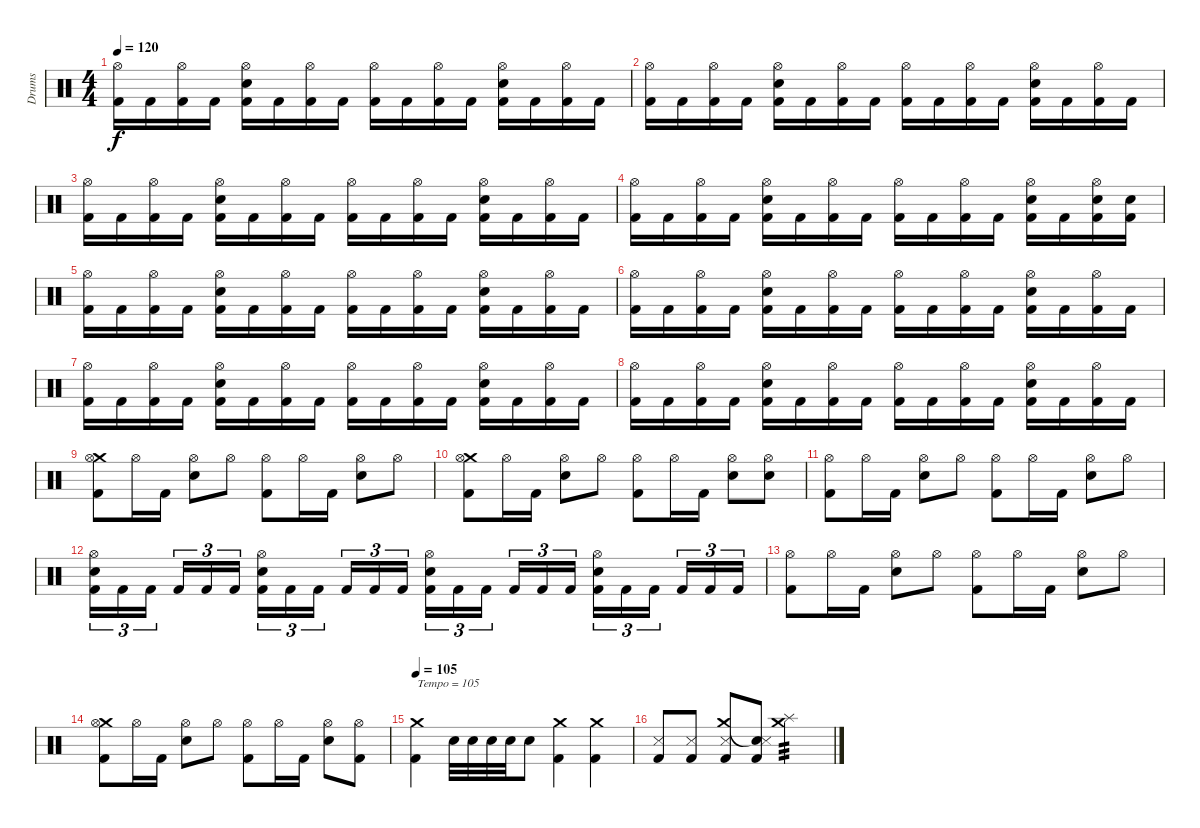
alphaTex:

\track ("Drums" "Drums") {instrument percussion}
\staff {score}
\articulation defaults
\ts (4 4)
\tempo 120
\clef neutral
\ks c
("Hi-Hat (open)" "Kick (hit) 2").16{dy f} "Kick (hit) 2".16 ("Hi-Hat (open)" "Kick (hit) 2").16 "Kick (hit) 2".16 ("Hi-Hat (open)" "Electric Snare (hit)" "Kick (hit) 2").16 "Kick (hit) 2".16 ("Hi-Hat (open)" "Kick (hit) 2").16 "Kick (hit) 2".16 ("Hi-Hat (open)" "Kick (hit) 2").16 "Kick (hit) 2".16 ("Hi-Hat (open)" "Kick (hit) 2").16 "Kick (hit) 2".16 ("Hi-Hat (open)" "Electric Snare (hit)" "Kick (hit) 2").16 "Kick (hit) 2".16 ("Hi-Hat (open)" "Kick (hit) 2").16 "Kick (hit) 2".16 |
("Hi-Hat (open)" "Kick (hit) 2").16 "Kick (hit) 2".16 ("Hi-Hat (open)" "Kick (hit) 2").16 "Kick (hit) 2".16 ("Hi-Hat (open)" "Electric Snare (hit)" "Kick (hit) 2").16 "Kick (hit) 2".16 ("Hi-Hat (open)" "Kick (hit) 2").16 "Kick (hit) 2".16 ("Hi-Hat (open)" "Kick (hit) 2").16 "Kick (hit) 2".16 ("Hi-Hat (open)" "Kick (hit) 2").16 "Kick (hit) 2".16 ("Hi-Hat (open)" "Electric Snare (hit)" "Kick (hit) 2").16 "Kick (hit) 2".16 ("Hi-Hat (open)" "Kick (hit) 2").16 "Kick (hit) 2".16 |
("Hi-Hat (open)" "Kick (hit) 2").16 "Kick (hit) 2".16 ("Hi-Hat (open)" "Kick (hit) 2").16 "Kick (hit) 2".16 ("Hi-Hat (open)" "Electric Snare (hit)" "Kick (hit) 2").16 "Kick (hit) 2".16 ("Hi-Hat (open)" "Kick (hit) 2").16 "Kick (hit) 2".16 ("Hi-Hat (open)" "Kick (hit) 2").16 "Kick (hit) 2".16 ("Hi-Hat (open)" "Kick (hit) 2").16 "Kick (hit) 2".16 ("Hi-Hat (open)" "Electric Snare (hit)" "Kick (hit) 2").16 "Kick (hit) 2".16 ("Hi-Hat (open)" "Kick (hit) 2").16 "Kick (hit) 2".16 |
("Hi-Hat (open)" "Kick (hit) 2").16 "Kick (hit) 2".16 ("Hi-Hat (open)" "Kick (hit) 2").16 "Kick (hit) 2".16 ("Hi-Hat (open)" "Electric Snare (hit)" "Kick (hit) 2").16 "Kick (hit) 2".16 ("Hi-Hat (open)" "Kick (hit) 2").16 "Kick (hit) 2".16 ("Hi-Hat (open)" "Kick (hit) 2").16 "Kick (hit) 2".16 ("Hi-Hat (open)" "Kick (hit) 2").16 "Kick (hit) 2".16 ("Hi-Hat (open)" "Electric Snare (hit)" "Kick (hit) 2").16 "Kick (hit) 2".16 ("Hi-Hat (open)" "Electric Snare (hit)" "Kick (hit) 2").16 ("Electric Snare (hit)" "Kick (hit) 2").16 |
("Hi-Hat (open)" "Kick (hit) 2").16 "Kick (hit) 2".16 ("Hi-Hat (open)" "Kick (hit) 2").16 "Kick (hit) 2".16 ("Hi-Hat (open)" "Electric Snare (hit)" "Kick (hit) 2").16 "Kick (hit) 2".16 ("Hi-Hat (open)" "Kick (hit) 2").16 "Kick (hit) 2".16 ("Hi-Hat (open)" "Kick (hit) 2").16 "Kick (hit) 2".16 ("Hi-Hat (open)" "Kick (hit) 2").16 "Kick (hit) 2".16 ("Hi-Hat (open)" "Electric Snare (hit)" "Kick (hit) 2").16 "Kick (hit) 2".16 ("Hi-Hat (open)" "Kick (hit) 2").16 "Kick (hit) 2".16 |
("Hi-Hat (open)" "Kick (hit) 2").16 "Kick (hit) 2".16 ("Hi-Hat (open)" "Kick (hit) 2").16 "Kick (hit) 2".16 ("Hi-Hat (open)" "Electric Snare (hit)" "Kick (hit) 2").16 "Kick (hit) 2".16 ("Hi-Hat (open)" "Kick (hit) 2").16 "Kick (hit) 2".16 ("Hi-Hat (open)" "Kick (hit) 2").16 "Kick (hit) 2".16 ("Hi-Hat (open)" "Kick (hit) 2").16 "Kick (hit) 2".16 ("Hi-Hat (open)" "Electric Snare (hit)" "Kick (hit) 2").16 "Kick (hit) 2".16 ("Hi-Hat (open)" "Kick (hit) 2").16 "Kick (hit) 2".16 |
("Hi-Hat (open)" "Kick (hit) 2").16 "Kick (hit) 2".16 ("Hi-Hat (open)" "Kick (hit) 2").16 "Kick (hit) 2".16 ("Hi-Hat (open)" "Electric Snare (hit)" "Kick (hit) 2").16 "Kick (hit) 2".16 ("Hi-Hat (open)" "Kick (hit) 2").16 "Kick (hit) 2".16 ("Hi-Hat (open)" "Kick (hit) 2").16 "Kick (hit) 2".16 ("Hi-Hat (open)" "Kick (hit) 2").16 "Kick (hit) 2".16 ("Hi-Hat (open)" "Electric Snare (hit)" "Kick (hit) 2").16 "Kick (hit) 2".16 ("Hi-Hat (open)" "Kick (hit) 2").16 "Kick (hit) 2".16 |
("Hi-Hat (open)" "Kick (hit) 2").16 "Kick (hit) 2".16 ("Hi-Hat (open)" "Kick (hit) 2").16 "Kick (hit) 2".16 ("Hi-Hat (open)" "Electric Snare (hit)" "Kick (hit) 2").16 "Kick (hit) 2".16 ("Hi-Hat (open)" "Kick (hit) 2").16 "Kick (hit) 2".16 ("Hi-Hat (open)" "Kick (hit) 2").16 "Kick (hit) 2".16 ("Hi-Hat (open)" "Kick (hit) 2").16 "Kick (hit) 2".16 ("Hi-Hat (open)" "Electric Snare (hit)" "Kick (hit) 2").16 "Kick (hit) 2".16 ("Hi-Hat (open)" "Kick (hit) 2").16 "Kick (hit) 2".16 |
("Crash medium (hit)" "Hi-Hat (open)" "Kick (hit) 2").8 "Hi-Hat (open)".16 "Kick (hit) 2".16 ("Hi-Hat (open)" "Electric Snare (hit)").8 "Hi-Hat (open)".8 ("Hi-Hat (open)" "Kick (hit) 2").8 "Hi-Hat (open)".16 "Kick (hit) 2".16 ("Hi-Hat (open)" "Electric Snare (hit)").8 "Hi-Hat (open)".8 |
("Crash medium (hit)" "Hi-Hat (open)" "Kick (hit) 2").8 "Hi-Hat (open)".16 "Kick (hit) 2".16 ("Hi-Hat (open)" "Electric Snare (hit)").8 "Hi-Hat (open)".8 ("Hi-Hat (open)" "Kick (hit) 2").8 "Hi-Hat (open)".16 "Kick (hit) 2".16 ("Hi-Hat (open)" "Electric Snare (hit)").8 ("Hi-Hat (open)" "Electric Snare (hit)").8 |
("Hi-Hat (open)" "Kick (hit) 2").8 "Hi-Hat (open)".16 "Kick (hit) 2".16 ("Hi-Hat (open)" "Electric Snare (hit)").8 "Hi-Hat (open)".8 ("Hi-Hat (open)" "Kick (hit) 2").8 "Hi-Hat (open)".16 "Kick (hit) 2".16 ("Hi-Hat (open)" "Electric Snare (hit)").8 "Hi-Hat (open)".8 |
("Hi-Hat (open)" "Electric Snare (hit)" "Kick (hit) 2").16{tu (3 2)} "Kick (hit) 2".16{tu (3 2)} "Kick (hit) 2".16{tu (3 2)} "Kick (hit) 2".16{tu (3 2)} "Kick (hit) 2".16{tu (3 2)} "Kick (hit) 2".16{tu (3 2)} ("Hi-Hat (open)" "Electric Snare (hit)" "Kick (hit) 2").16{tu (3 2)} "Kick (hit) 2".16{tu (3 2)} "Kick (hit) 2".16{tu (3 2)} "Kick (hit) 2".16{tu (3 2)} "Kick (hit) 2".16{tu (3 2)} "Kick (hit) 2".16{tu (3 2)} ("Hi-Hat (open)" "Electric Snare (hit)" "Kick (hit) 2").16{tu (3 2)} "Kick (hit) 2".16{tu (3 2)} "Kick (hit) 2".16{tu (3 2)} "Kick (hit) 2".16{tu (3 2)} "Kick (hit) 2".16{tu (3 2)} "Kick (hit) 2".16{tu (3 2)} ("Hi-Hat (open)" "Electric Snare (hit)" "Kick (hit) 2").16{tu (3 2)} "Kick (hit) 2".16{tu (3 2)} "Kick (hit) 2".16{tu (3 2)} "Kick (hit) 2".16{tu (3 2)} "Kick (hit) 2".16{tu (3 2)} "Kick (hit) 2".16{tu (3 2)} |
("Hi-Hat (open)" "Kick (hit) 2").8 "Hi-Hat (open)".16 "Kick (hit) 2".16 ("Hi-Hat (open)" "Electric Snare (hit)").8 "Hi-Hat (open)".8 ("Hi-Hat (open)" "Kick (hit) 2").8 "Hi-Hat (open)".16 "Kick (hit) 2".16 ("Hi-Hat (open)" "Electric Snare (hit)").8 "Hi-Hat (open)".8 |
("Crash medium (hit)" "Hi-Hat (open)" "Kick (hit) 2").8 "Hi-Hat (open)".16 "Kick (hit) 2".16 ("Hi-Hat (open)" "Electric Snare (hit)").8 "Hi-Hat (open)".8 ("Hi-Hat (open)" "Kick (hit) 2").8 "Hi-Hat (open)".16 "Kick (hit) 2".16 ("Hi-Hat (open)" "Electric Snare (hit)").8 ("Hi-Hat (open)" "Kick (hit) 2").8 |
\tempo 105
("Crash medium (hit)" "Kick (hit) 2").4{txt "Tempo = 105"} "Electric Snare (hit)".32 "Electric Snare (hit)".32 "Electric Snare (hit)".32 "Electric Snare (hit)".32 "Electric Snare (hit)".8 ("Crash medium (hit)" "Kick (hit) 2").4 ("Crash medium (hit)" "Kick (hit) 2").4 |
("Snare (side stick) 3" "Kick (hit) 2").8 ("Snare (side stick) 3" "Kick (hit) 2").8 ("Crash medium (hit)" "Snare (side stick) 3" "Kick (hit) 2").8 ("Snare (hit)"{t} "Snare (side stick) 3" "Kick (hit) 2").8 ("Crash medium (hit)" "Splash (hit)").2{tp 3}
